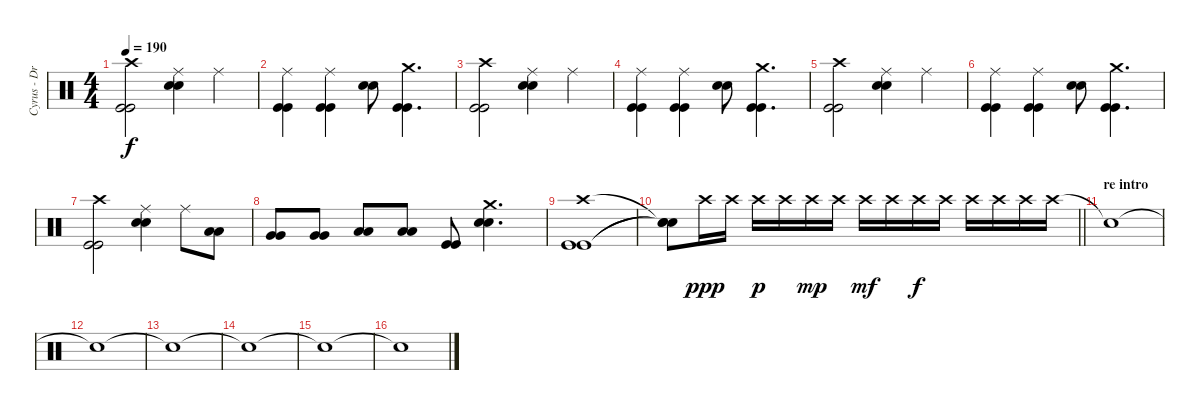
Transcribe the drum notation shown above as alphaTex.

\track ("Cyrus - Drums" "Cyrus - Dr") {instrument percussion}
\staff {score}
\articulation defaults
\ts (4 4)
\tempo 190
\clef neutral
\ks c
("Kick (hit)" "Kick (hit)" "Crash high (hit)").2{dy f} ("Snare (hit) 2" "Snare (hit) 2" "Ride (middle)").4 "Ride (middle)".4 |
("Kick (hit)" "Kick (hit)" "Ride (middle)").4 ("Kick (hit)" "Kick (hit)" "Ride (middle)").4 ("Snare (hit) 2" "Snare (hit) 2").8 ("Kick (hit)" "Kick (hit)" "Crash medium (hit)").4{d} |
("Kick (hit)" "Kick (hit)" "Crash high (hit)").2 ("Snare (hit) 2" "Snare (hit) 2" "Ride (middle)").4 "Ride (middle)".4 |
("Kick (hit)" "Kick (hit)" "Ride (middle)").4 ("Kick (hit)" "Kick (hit)" "Ride (middle)").4 ("Snare (hit) 2" "Snare (hit) 2").8 ("Kick (hit)" "Kick (hit)" "Crash medium (hit)").4{d} |
("Kick (hit)" "Kick (hit)" "Crash high (hit)").2 ("Snare (hit) 2" "Snare (hit) 2" "Ride (middle)").4 "Ride (middle)".4 |
("Kick (hit)" "Kick (hit)" "Ride (middle)").4 ("Kick (hit)" "Kick (hit)" "Ride (middle)").4 ("Snare (hit) 2" "Snare (hit) 2").8 ("Kick (hit)" "Kick (hit)" "Crash medium (hit)").4{d} |
("Kick (hit)" "Kick (hit)" "Crash high (hit)").2 ("Snare (hit) 2" "Snare (hit) 2" "Ride (middle)").4 "Ride (middle)".8 ("Low Tom (hit)" "Low Tom (hit)").8 |
("Very Low Tom (hit)" "Very Low Tom (hit)").8 ("Very Low Tom (hit)" "Very Low Tom (hit)").8 ("Low Floor Tom (hit)" "Low Floor Tom (hit)").8 ("Low Floor Tom (hit)" "Low Floor Tom (hit)").8 ("Kick (hit)" "Kick (hit)").8 ("Snare (hit) 2" "Snare (hit) 2" "Crash medium (hit)").4{d} |
("Kick (hit)" "Kick (hit)" "Crash high (hit)").1 |
\barLineRight lightlight
("Snare (hit)"{t} "Snare (hit)"{t} "Snare (hit)"{t}).8 "Crash high (hit)".16{dy ppp} "Crash high (hit)".16 "Crash high (hit)".16{dy p} "Crash high (hit)".16 "Crash high (hit)".16{dy mp} "Crash high (hit)".16 "Crash high (hit)".16{dy mf} "Crash high (hit)".16 "Crash high (hit)".16{dy f} "Crash high (hit)".16 "Crash high (hit)".16 "Crash high (hit)".16 "Crash high (hit)".16 "Crash high (hit)".16 |
\section ("" "re intro")
"Snare (hit)"{t}.1 |
"Snare (hit)"{t}.1 |
"Snare (hit)"{t}.1 |
"Snare (hit)"{t}.1 |
"Snare (hit)"{t}.1 |
"Snare (hit)"{t}.1
